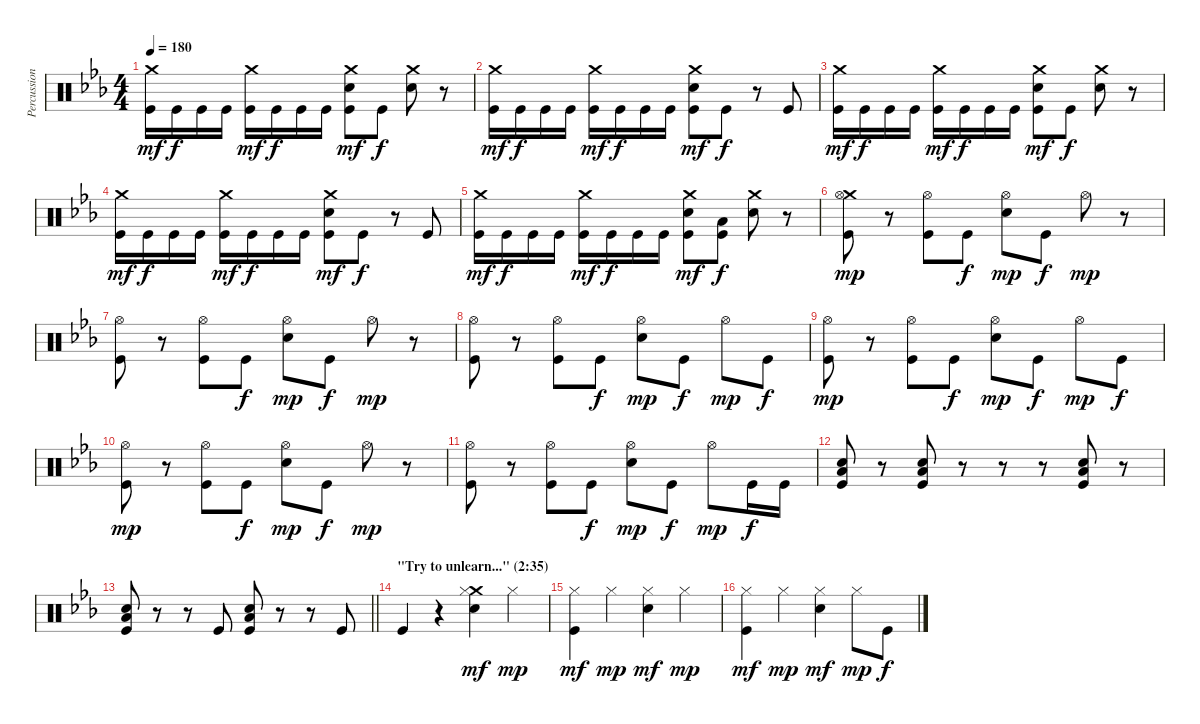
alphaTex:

\track ("Percussion" "Percussion") {instrument percussion}
\staff {score}
\articulation defaults
\ts (4 4)
\tempo 180
\clef neutral
\ks cminor
("Crash medium (hit)" "Kick (hit)").16{dy mf} "Kick (hit)".16{dy f} "Kick (hit)".16 "Kick (hit)".16 ("Crash medium (hit)" "Kick (hit)").16{dy mf} "Kick (hit)".16{dy f} "Kick (hit)".16 "Kick (hit)".16 ("Crash medium (hit)" "Snare (hit) 2" "Kick (hit)").8{dy mf} "Kick (hit)".8{dy f} ("Crash medium (hit)" "Snare (hit) 2").8 r.8 |
("Crash medium (hit)" "Kick (hit)").16{dy mf} "Kick (hit)".16{dy f} "Kick (hit)".16 "Kick (hit)".16 ("Crash medium (hit)" "Kick (hit)").16{dy mf} "Kick (hit)".16{dy f} "Kick (hit)".16 "Kick (hit)".16 ("Crash medium (hit)" "Snare (hit) 2" "Kick (hit)").8{dy mf} "Kick (hit)".8{dy f} r.8 "Kick (hit)".8 |
("Crash medium (hit)" "Kick (hit)").16{dy mf} "Kick (hit)".16{dy f} "Kick (hit)".16 "Kick (hit)".16 ("Crash medium (hit)" "Kick (hit)").16{dy mf} "Kick (hit)".16{dy f} "Kick (hit)".16 "Kick (hit)".16 ("Crash medium (hit)" "Snare (hit) 2" "Kick (hit)").8{dy mf} "Kick (hit)".8{dy f} ("Crash medium (hit)" "Snare (hit) 2").8 r.8 |
("Crash medium (hit)" "Kick (hit)").16{dy mf} "Kick (hit)".16{dy f} "Kick (hit)".16 "Kick (hit)".16 ("Crash medium (hit)" "Kick (hit)").16{dy mf} "Kick (hit)".16{dy f} "Kick (hit)".16 "Kick (hit)".16 ("Crash medium (hit)" "Snare (hit) 2" "Kick (hit)").8{dy mf} "Kick (hit)".8{dy f} r.8 "Kick (hit)".8 |
("Crash medium (hit)" "Kick (hit)").16{dy mf} "Kick (hit)".16{dy f} "Kick (hit)".16 "Kick (hit)".16 ("Crash medium (hit)" "Kick (hit)").16{dy mf} "Kick (hit)".16{dy f} "Kick (hit)".16 "Kick (hit)".16 ("Crash medium (hit)" "Snare (hit) 2" "Kick (hit)").8{dy mf} ("Low Floor Tom (hit)" "Kick (hit)").8{dy f} ("Crash medium (hit)" "Snare (hit) 2").8 r.8 |
("Crash medium (hit)" "Hi-Hat (open)" "Kick (hit)").8{dy mp} r.8 ("Hi-Hat (open)" "Kick (hit)").8 "Kick (hit)".8{dy f} ("Hi-Hat (open)" "Snare (hit) 2").8{dy mp} "Kick (hit)".8{dy f} "Hi-Hat (open)".8{dy mp} r.8 |
("Hi-Hat (open)" "Kick (hit)").8 r.8 ("Hi-Hat (open)" "Kick (hit)").8 "Kick (hit)".8{dy f} ("Hi-Hat (open)" "Snare (hit) 2").8{dy mp} "Kick (hit)".8{dy f} "Hi-Hat (open)".8{dy mp} r.8 |
("Hi-Hat (open)" "Kick (hit)").8 r.8 ("Hi-Hat (open)" "Kick (hit)").8 "Kick (hit)".8{dy f} ("Hi-Hat (open)" "Snare (hit) 2").8{dy mp} "Kick (hit)".8{dy f} "Hi-Hat (open)".8{dy mp} "Kick (hit)".8{dy f} |
("Hi-Hat (open)" "Kick (hit)").8{dy mp} r.8 ("Hi-Hat (open)" "Kick (hit)").8 "Kick (hit)".8{dy f} ("Hi-Hat (open)" "Snare (hit) 2").8{dy mp} "Kick (hit)".8{dy f} "Hi-Hat (open)".8{dy mp} "Kick (hit)".8{dy f} |
("Hi-Hat (open)" "Kick (hit)").8{dy mp} r.8 ("Hi-Hat (open)" "Kick (hit)").8 "Kick (hit)".8{dy f} ("Hi-Hat (open)" "Snare (hit) 2").8{dy mp} "Kick (hit)".8{dy f} "Hi-Hat (open)".8{dy mp} r.8 |
("Hi-Hat (open)" "Kick (hit)").8 r.8 ("Hi-Hat (open)" "Kick (hit)").8 "Kick (hit)".8{dy f} ("Hi-Hat (open)" "Snare (hit) 2").8{dy mp} "Kick (hit)".8{dy f} "Hi-Hat (open)".8{dy mp} "Kick (hit)".16{dy f} "Kick (hit)".16 |
("Low Floor Tom (hit)" "Snare (hit) 2" "Kick (hit)").8 r.8 ("Low Floor Tom (hit)" "Snare (hit) 2" "Kick (hit)").8 r.8 r.8 r.8 ("Low Floor Tom (hit)" "Snare (hit) 2" "Kick (hit)").8 r.8 |
\barLineRight lightlight
("Low Floor Tom (hit)" "Snare (hit) 2" "Kick (hit)").8 r.8 r.8 "Kick (hit)".8 ("Low Floor Tom (hit)" "Snare (hit) 2" "Kick (hit)").8 r.8 r.8 "Kick (hit)".8 |
\section ("" "\"Try to unlearn...\" (2:35)")
"Kick (hit)".4 r.4 ("Crash medium (hit)" "Hi-Hat (closed)" "Snare (hit) 2").4{dy mf} "Hi-Hat (closed)".4{dy mp} |
("Hi-Hat (closed)" "Kick (hit)").4{dy mf} "Hi-Hat (closed)".4{dy mp} ("Hi-Hat (closed)" "Snare (hit) 2").4{dy mf} "Hi-Hat (closed)".4{dy mp} |
("Hi-Hat (closed)" "Kick (hit)").4{dy mf} "Hi-Hat (closed)".4{dy mp} ("Hi-Hat (closed)" "Snare (hit) 2").4{dy mf} "Hi-Hat (closed)".8{dy mp} "Kick (hit)".8{dy f}
